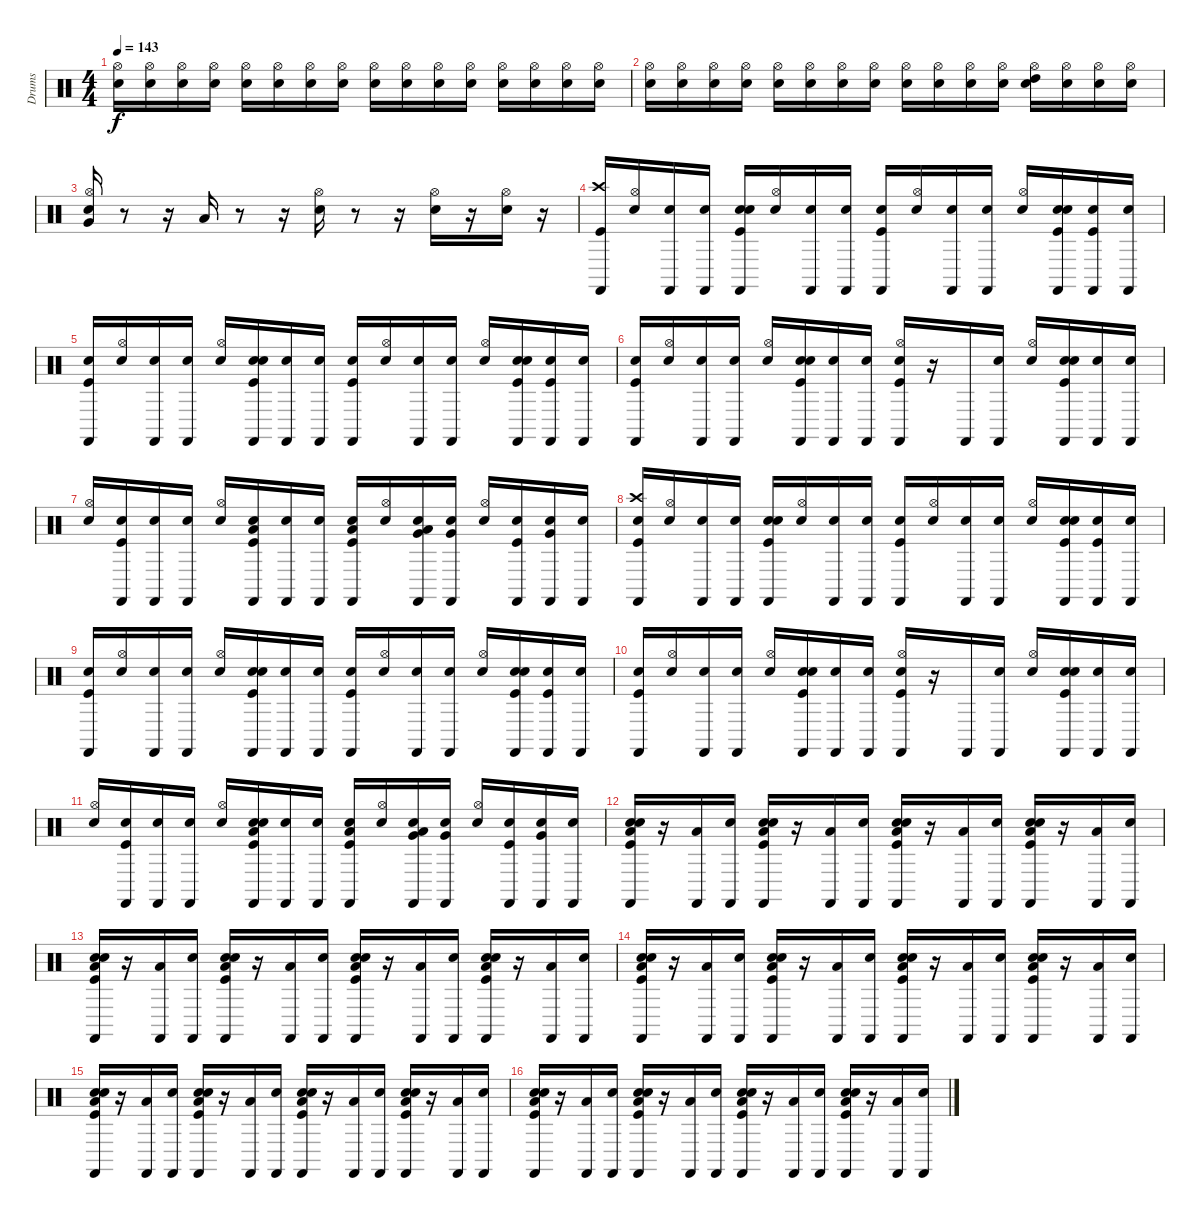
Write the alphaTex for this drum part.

\track ("Drums" "Drums") {instrument percussion}
\staff {score}
\articulation defaults
\ts (4 4)
\tempo 143
\clef neutral
\ks c
("Snare (hit)" "Hi-Hat (open)").16{dy f} ("Snare (hit)" "Hi-Hat (open)").16 ("Snare (hit)" "Hi-Hat (open)").16 ("Snare (hit)" "Hi-Hat (open)").16 ("Snare (hit)" "Hi-Hat (open)").16 ("Snare (hit)" "Hi-Hat (open)").16 ("Snare (hit)" "Hi-Hat (open)").16 ("Snare (hit)" "Hi-Hat (open)").16 ("Snare (hit)" "Hi-Hat (open)").16 ("Snare (hit)" "Hi-Hat (open)").16 ("Snare (hit)" "Hi-Hat (open)").16 ("Snare (hit)" "Hi-Hat (open)").16 ("Snare (hit)" "Hi-Hat (open)").16 ("Snare (hit)" "Hi-Hat (open)").16 ("Snare (hit)" "Hi-Hat (open)").16 ("Snare (hit)" "Hi-Hat (open)").16 |
("Snare (hit)" "Hi-Hat (open)").16 ("Snare (hit)" "Hi-Hat (open)").16 ("Snare (hit)" "Hi-Hat (open)").16 ("Snare (hit)" "Hi-Hat (open)").16 ("Snare (hit)" "Hi-Hat (open)").16 ("Snare (hit)" "Hi-Hat (open)").16 ("Snare (hit)" "Hi-Hat (open)").16 ("Snare (hit)" "Hi-Hat (open)").16 ("Snare (hit)" "Hi-Hat (open)").16 ("Snare (hit)" "Hi-Hat (open)").16 ("Snare (hit)" "Hi-Hat (open)").16 ("Snare (hit)" "Hi-Hat (open)").16 ("Snare (hit)" "High Tom (hit)" "Hi-Hat (open)").16 ("Snare (hit)" "Hi-Hat (open)").16 ("Snare (hit)" "Hi-Hat (open)").16 ("Snare (hit)" "Hi-Hat (open)").16 |
("Snare (hit)" "Hi-Hat (open)" "Very Low Tom (hit)").16 r.8 r.16 "Low Tom (hit)".16 r.8 r.16 ("Hi-Hat (open)" "Electric Snare (hit)").16 r.8 r.16 ("Hi-Hat (open)" "Electric Snare (hit)").16 r.16 ("Hi-Hat (open)" "Electric Snare (hit)").16 r.16 |
("Kick (hit)" "Crash high (hit)" "Castanets (hit)").16 ("Snare (hit)" "Hi-Hat (open)").16 ("Snare (hit)" "Castanets (hit)").16 ("Snare (hit)" "Castanets (hit)").16 ("Snare (hit)" "Electric Snare (hit)" "Kick (hit)" "Castanets (hit)").16 ("Snare (hit)" "Hi-Hat (open)").16 ("Snare (hit)" "Castanets (hit)").16 ("Snare (hit)" "Castanets (hit)").16 ("Snare (hit)" "Kick (hit)" "Castanets (hit)").16 ("Snare (hit)" "Hi-Hat (open)").16 ("Snare (hit)" "Castanets (hit)").16 ("Snare (hit)" "Castanets (hit)").16 ("Snare (hit)" "Hi-Hat (open)").16 ("Snare (hit)" "Electric Snare (hit)" "Kick (hit)" "Castanets (hit)").16 ("Snare (hit)" "Kick (hit)" "Castanets (hit)").16 ("Snare (hit)" "Castanets (hit)").16 |
("Snare (hit)" "Kick (hit)" "Castanets (hit)").16 ("Snare (hit)" "Hi-Hat (open)").16 ("Snare (hit)" "Castanets (hit)").16 ("Snare (hit)" "Castanets (hit)").16 ("Snare (hit)" "Hi-Hat (open)").16 ("Snare (hit)" "Electric Snare (hit)" "Kick (hit)" "Castanets (hit)").16 ("Snare (hit)" "Castanets (hit)").16 ("Snare (hit)" "Castanets (hit)").16 ("Snare (hit)" "Kick (hit)" "Castanets (hit)").16 ("Snare (hit)" "Hi-Hat (open)").16 ("Snare (hit)" "Castanets (hit)").16 ("Snare (hit)" "Castanets (hit)").16 ("Snare (hit)" "Hi-Hat (open)").16 ("Snare (hit)" "Electric Snare (hit)" "Kick (hit)" "Castanets (hit)").16 ("Snare (hit)" "Kick (hit)" "Castanets (hit)").16 ("Snare (hit)" "Castanets (hit)").16 |
("Snare (hit)" "Kick (hit)" "Castanets (hit)").16 ("Snare (hit)" "Hi-Hat (open)").16 ("Snare (hit)" "Castanets (hit)").16 ("Snare (hit)" "Castanets (hit)").16 ("Snare (hit)" "Hi-Hat (open)").16 ("Snare (hit)" "Electric Snare (hit)" "Kick (hit)" "Castanets (hit)").16 ("Snare (hit)" "Castanets (hit)").16 ("Snare (hit)" "Castanets (hit)").16 ("Snare (hit)" "Kick (hit)" "Castanets (hit)" "Hi-Hat (open)").16 r.16 "Castanets (hit)".16 ("Snare (hit)" "Castanets (hit)").16 ("Snare (hit)" "Hi-Hat (open)").16 ("Snare (hit)" "Electric Snare (hit)" "Kick (hit)" "Castanets (hit)").16 ("Snare (hit)" "Castanets (hit)").16 ("Snare (hit)" "Castanets (hit)").16 |
("Snare (hit)" "Hi-Hat (open)").16 ("Snare (hit)" "Kick (hit)" "Castanets (hit)").16 ("Snare (hit)" "Castanets (hit)").16 ("Snare (hit)" "Castanets (hit)").16 ("Snare (hit)" "Hi-Hat (open)").16 ("Snare (hit)" "Kick (hit)" "Low Tom (hit)" "Castanets (hit)").16 ("Snare (hit)" "Castanets (hit)").16 ("Snare (hit)" "Castanets (hit)").16 ("Snare (hit)" "Kick (hit)" "Low Tom (hit)" "Castanets (hit)").16 ("Snare (hit)" "Hi-Hat (open)").16 ("Snare (hit)" "Very Low Tom (hit)" "Low Tom (hit)" "Castanets (hit)").16 ("Snare (hit)" "Very Low Tom (hit)" "Castanets (hit)").16 ("Snare (hit)" "Hi-Hat (open)").16 ("Snare (hit)" "Kick (hit)" "Castanets (hit)").16 ("Snare (hit)" "Very Low Tom (hit)" "Castanets (hit)").16 ("Snare (hit)" "Castanets (hit)").16 |
("Snare (hit)" "Kick (hit)" "Crash high (hit)" "Castanets (hit)").16 ("Snare (hit)" "Hi-Hat (open)").16 ("Snare (hit)" "Castanets (hit)").16 ("Snare (hit)" "Castanets (hit)").16 ("Snare (hit)" "Electric Snare (hit)" "Kick (hit)" "Castanets (hit)").16 ("Snare (hit)" "Hi-Hat (open)").16 ("Snare (hit)" "Castanets (hit)").16 ("Snare (hit)" "Castanets (hit)").16 ("Snare (hit)" "Kick (hit)" "Castanets (hit)").16 ("Snare (hit)" "Hi-Hat (open)").16 ("Snare (hit)" "Castanets (hit)").16 ("Snare (hit)" "Castanets (hit)").16 ("Snare (hit)" "Hi-Hat (open)").16 ("Snare (hit)" "Electric Snare (hit)" "Kick (hit)" "Castanets (hit)").16 ("Snare (hit)" "Kick (hit)" "Castanets (hit)").16 ("Snare (hit)" "Castanets (hit)").16 |
("Snare (hit)" "Kick (hit)" "Castanets (hit)").16 ("Snare (hit)" "Hi-Hat (open)").16 ("Snare (hit)" "Castanets (hit)").16 ("Snare (hit)" "Castanets (hit)").16 ("Snare (hit)" "Hi-Hat (open)").16 ("Snare (hit)" "Electric Snare (hit)" "Kick (hit)" "Castanets (hit)").16 ("Snare (hit)" "Castanets (hit)").16 ("Snare (hit)" "Castanets (hit)").16 ("Snare (hit)" "Kick (hit)" "Castanets (hit)").16 ("Snare (hit)" "Hi-Hat (open)").16 ("Snare (hit)" "Castanets (hit)").16 ("Snare (hit)" "Castanets (hit)").16 ("Snare (hit)" "Hi-Hat (open)").16 ("Snare (hit)" "Electric Snare (hit)" "Kick (hit)" "Castanets (hit)").16 ("Snare (hit)" "Kick (hit)" "Castanets (hit)").16 ("Snare (hit)" "Castanets (hit)").16 |
("Snare (hit)" "Kick (hit)" "Castanets (hit)").16 ("Snare (hit)" "Hi-Hat (open)").16 ("Snare (hit)" "Castanets (hit)").16 ("Snare (hit)" "Castanets (hit)").16 ("Snare (hit)" "Hi-Hat (open)").16 ("Snare (hit)" "Electric Snare (hit)" "Kick (hit)" "Castanets (hit)").16 ("Snare (hit)" "Castanets (hit)").16 ("Snare (hit)" "Castanets (hit)").16 ("Snare (hit)" "Kick (hit)" "Castanets (hit)" "Hi-Hat (open)").16 r.16 "Castanets (hit)".16 ("Snare (hit)" "Castanets (hit)").16 ("Snare (hit)" "Hi-Hat (open)").16 ("Snare (hit)" "Electric Snare (hit)" "Kick (hit)" "Castanets (hit)").16 ("Snare (hit)" "Castanets (hit)").16 ("Snare (hit)" "Castanets (hit)").16 |
("Snare (hit)" "Hi-Hat (open)").16 ("Snare (hit)" "Kick (hit)" "Castanets (hit)").16 ("Snare (hit)" "Castanets (hit)").16 ("Snare (hit)" "Castanets (hit)").16 ("Snare (hit)" "Hi-Hat (open)").16 ("Snare (hit)" "Electric Snare (hit)" "Kick (hit)" "Low Tom (hit)" "Castanets (hit)").16 ("Snare (hit)" "Castanets (hit)").16 ("Snare (hit)" "Castanets (hit)").16 ("Snare (hit)" "Kick (hit)" "Low Tom (hit)" "Castanets (hit)").16 ("Snare (hit)" "Hi-Hat (open)").16 ("Snare (hit)" "Very Low Tom (hit)" "Low Tom (hit)" "Castanets (hit)").16 ("Snare (hit)" "Very Low Tom (hit)" "Castanets (hit)").16 ("Snare (hit)" "Hi-Hat (open)").16 ("Snare (hit)" "Kick (hit)" "Castanets (hit)").16 ("Snare (hit)" "Very Low Tom (hit)" "Castanets (hit)").16 ("Snare (hit)" "Castanets (hit)").16 |
("Snare (hit)" "Low Tom (hit)" "Electric Snare (hit)" "Kick (hit)" "Castanets (hit)").16 r.16 ("Low Tom (hit)" "Castanets (hit)").16 ("Snare (hit)" "Castanets (hit)").16 ("Snare (hit)" "Low Tom (hit)" "Electric Snare (hit)" "Kick (hit)" "Castanets (hit)").16 r.16 ("Low Tom (hit)" "Castanets (hit)").16 ("Snare (hit)" "Castanets (hit)").16 ("Snare (hit)" "Low Tom (hit)" "Electric Snare (hit)" "Kick (hit)" "Castanets (hit)").16 r.16 ("Low Tom (hit)" "Castanets (hit)").16 ("Snare (hit)" "Castanets (hit)").16 ("Snare (hit)" "Low Tom (hit)" "Electric Snare (hit)" "Kick (hit)" "Castanets (hit)").16 r.16 ("Low Tom (hit)" "Castanets (hit)").16 ("Snare (hit)" "Castanets (hit)").16 |
("Snare (hit)" "Low Tom (hit)" "Electric Snare (hit)" "Kick (hit)" "Castanets (hit)").16 r.16 ("Low Tom (hit)" "Castanets (hit)").16 ("Snare (hit)" "Castanets (hit)").16 ("Snare (hit)" "Low Tom (hit)" "Electric Snare (hit)" "Kick (hit)" "Castanets (hit)").16 r.16 ("Low Tom (hit)" "Castanets (hit)").16 ("Snare (hit)" "Castanets (hit)").16 ("Snare (hit)" "Low Tom (hit)" "Electric Snare (hit)" "Kick (hit)" "Castanets (hit)").16 r.16 ("Low Tom (hit)" "Castanets (hit)").16 ("Snare (hit)" "Castanets (hit)").16 ("Snare (hit)" "Low Tom (hit)" "Electric Snare (hit)" "Kick (hit)" "Castanets (hit)").16 r.16 ("Low Tom (hit)" "Castanets (hit)").16 ("Snare (hit)" "Castanets (hit)").16 |
("Snare (hit)" "Low Tom (hit)" "Electric Snare (hit)" "Kick (hit)" "Castanets (hit)").16 r.16 ("Low Tom (hit)" "Castanets (hit)").16 ("Snare (hit)" "Castanets (hit)").16 ("Snare (hit)" "Low Tom (hit)" "Electric Snare (hit)" "Kick (hit)" "Castanets (hit)").16 r.16 ("Low Tom (hit)" "Castanets (hit)").16 ("Snare (hit)" "Castanets (hit)").16 ("Snare (hit)" "Low Tom (hit)" "Electric Snare (hit)" "Kick (hit)" "Castanets (hit)").16 r.16 ("Low Tom (hit)" "Castanets (hit)").16 ("Snare (hit)" "Castanets (hit)").16 ("Snare (hit)" "Low Tom (hit)" "Electric Snare (hit)" "Kick (hit)" "Castanets (hit)").16 r.16 ("Low Tom (hit)" "Castanets (hit)").16 ("Snare (hit)" "Castanets (hit)").16 |
("Snare (hit)" "Low Tom (hit)" "Electric Snare (hit)" "Kick (hit)" "Castanets (hit)").16 r.16 ("Low Tom (hit)" "Castanets (hit)").16 ("Snare (hit)" "Castanets (hit)").16 ("Snare (hit)" "Low Tom (hit)" "Electric Snare (hit)" "Kick (hit)" "Castanets (hit)").16 r.16 ("Low Tom (hit)" "Castanets (hit)").16 ("Snare (hit)" "Castanets (hit)").16 ("Snare (hit)" "Low Tom (hit)" "Electric Snare (hit)" "Kick (hit)" "Castanets (hit)").16 r.16 ("Low Tom (hit)" "Castanets (hit)").16 ("Snare (hit)" "Castanets (hit)").16 ("Snare (hit)" "Low Tom (hit)" "Electric Snare (hit)" "Kick (hit)" "Castanets (hit)").16 r.16 ("Low Tom (hit)" "Castanets (hit)").16 ("Snare (hit)" "Castanets (hit)").16 |
("Snare (hit)" "Low Tom (hit)" "Electric Snare (hit)" "Kick (hit)" "Castanets (hit)").16 r.16 ("Low Tom (hit)" "Castanets (hit)").16 ("Snare (hit)" "Castanets (hit)").16 ("Snare (hit)" "Low Tom (hit)" "Electric Snare (hit)" "Kick (hit)" "Castanets (hit)").16 r.16 ("Low Tom (hit)" "Castanets (hit)").16 ("Snare (hit)" "Castanets (hit)").16 ("Snare (hit)" "Low Tom (hit)" "Electric Snare (hit)" "Kick (hit)" "Castanets (hit)").16 r.16 ("Low Tom (hit)" "Castanets (hit)").16 ("Snare (hit)" "Castanets (hit)").16 ("Snare (hit)" "Low Tom (hit)" "Electric Snare (hit)" "Kick (hit)" "Castanets (hit)").16 r.16 ("Low Tom (hit)" "Castanets (hit)").16 ("Snare (hit)" "Castanets (hit)").16
